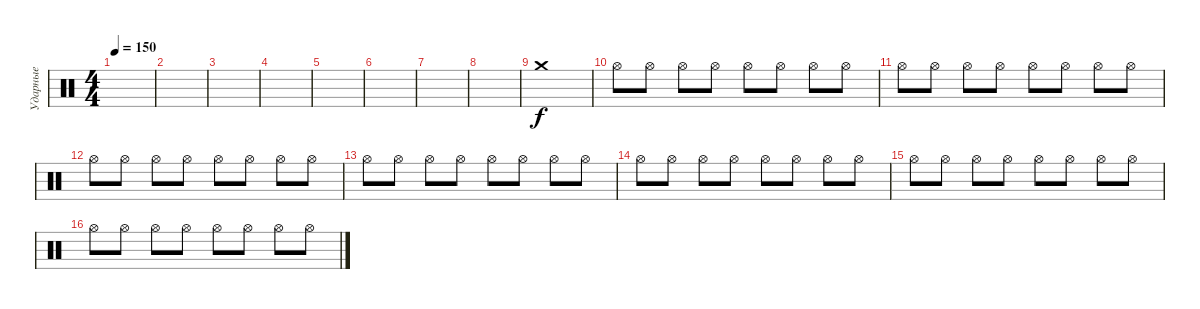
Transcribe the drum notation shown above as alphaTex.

\track ("Ударные" "Ударные") {instrument percussion}
\staff {score}
\articulation defaults
\ts (4 4)
\tempo 150
\clef neutral
\ks c
|
|
|
|
|
|
|
|
"Crash medium (hit)".1 |
"Hi-Hat (open)".8 "Hi-Hat (open)".8 "Hi-Hat (open)".8 "Hi-Hat (open)".8 "Hi-Hat (open)".8 "Hi-Hat (open)".8 "Hi-Hat (open)".8 "Hi-Hat (open)".8 |
"Hi-Hat (open)".8 "Hi-Hat (open)".8 "Hi-Hat (open)".8 "Hi-Hat (open)".8 "Hi-Hat (open)".8 "Hi-Hat (open)".8 "Hi-Hat (open)".8 "Hi-Hat (open)".8 |
"Hi-Hat (open)".8 "Hi-Hat (open)".8 "Hi-Hat (open)".8 "Hi-Hat (open)".8 "Hi-Hat (open)".8 "Hi-Hat (open)".8 "Hi-Hat (open)".8 "Hi-Hat (open)".8 |
"Hi-Hat (open)".8 "Hi-Hat (open)".8 "Hi-Hat (open)".8 "Hi-Hat (open)".8 "Hi-Hat (open)".8 "Hi-Hat (open)".8 "Hi-Hat (open)".8 "Hi-Hat (open)".8 |
"Hi-Hat (open)".8 "Hi-Hat (open)".8 "Hi-Hat (open)".8 "Hi-Hat (open)".8 "Hi-Hat (open)".8 "Hi-Hat (open)".8 "Hi-Hat (open)".8 "Hi-Hat (open)".8 |
"Hi-Hat (open)".8 "Hi-Hat (open)".8 "Hi-Hat (open)".8 "Hi-Hat (open)".8 "Hi-Hat (open)".8 "Hi-Hat (open)".8 "Hi-Hat (open)".8 "Hi-Hat (open)".8 |
"Hi-Hat (open)".8 "Hi-Hat (open)".8 "Hi-Hat (open)".8 "Hi-Hat (open)".8 "Hi-Hat (open)".8 "Hi-Hat (open)".8 "Hi-Hat (open)".8 "Hi-Hat (open)".8
